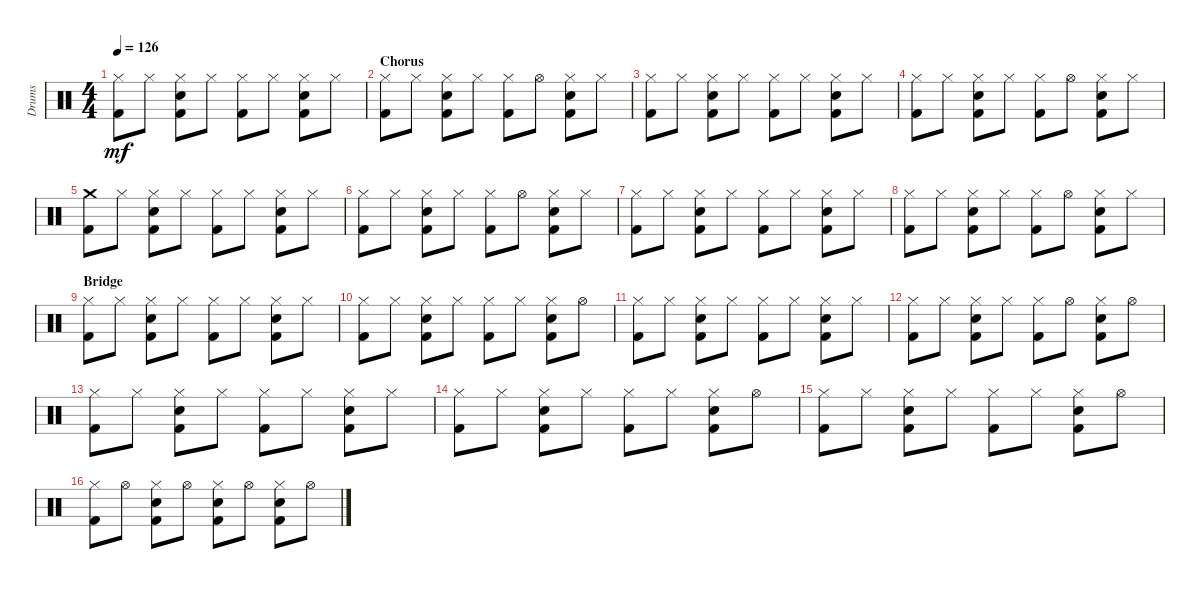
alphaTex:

\track ("Drums" "Drums") {instrument percussion}
\staff {score}
\articulation defaults
\ts (4 4)
\tempo 126
\clef neutral
\ks c
("Hi-Hat (closed)" "Kick (hit) 2").8{dy mf} "Hi-Hat (closed)".8 ("Hi-Hat (closed)" "Snare (hit) 2" "Kick (hit) 2").8 "Hi-Hat (closed)".8 ("Hi-Hat (closed)" "Kick (hit) 2").8 "Hi-Hat (closed)".8 ("Hi-Hat (closed)" "Snare (hit) 2" "Kick (hit) 2").8 "Hi-Hat (closed)".8 |
\section ("" "Chorus")
("Hi-Hat (closed)" "Kick (hit) 2").8 "Hi-Hat (closed)".8 ("Hi-Hat (closed)" "Snare (hit) 2" "Kick (hit) 2").8 "Hi-Hat (closed)".8 ("Hi-Hat (closed)" "Kick (hit) 2").8 "Hi-Hat (open)".8 ("Hi-Hat (closed)" "Snare (hit) 2" "Kick (hit) 2").8 "Hi-Hat (closed)".8 |
("Hi-Hat (closed)" "Kick (hit) 2").8 "Hi-Hat (closed)".8 ("Hi-Hat (closed)" "Snare (hit) 2" "Kick (hit) 2").8 "Hi-Hat (closed)".8 ("Hi-Hat (closed)" "Kick (hit) 2").8 "Hi-Hat (closed)".8 ("Hi-Hat (closed)" "Snare (hit) 2" "Kick (hit) 2").8 "Hi-Hat (closed)".8 |
("Hi-Hat (closed)" "Kick (hit) 2").8 "Hi-Hat (closed)".8 ("Hi-Hat (closed)" "Snare (hit) 2" "Kick (hit) 2").8 "Hi-Hat (closed)".8 ("Hi-Hat (closed)" "Kick (hit) 2").8 "Hi-Hat (open)".8 ("Hi-Hat (closed)" "Snare (hit) 2" "Kick (hit) 2").8 "Hi-Hat (closed)".8 |
("Crash medium (hit)" "Kick (hit) 2").8 "Hi-Hat (closed)".8 ("Hi-Hat (closed)" "Snare (hit) 2" "Kick (hit) 2").8 "Hi-Hat (closed)".8 ("Hi-Hat (closed)" "Kick (hit) 2").8 "Hi-Hat (closed)".8 ("Hi-Hat (closed)" "Snare (hit) 2" "Kick (hit) 2").8 "Hi-Hat (closed)".8 |
("Hi-Hat (closed)" "Kick (hit) 2").8 "Hi-Hat (closed)".8 ("Hi-Hat (closed)" "Snare (hit) 2" "Kick (hit) 2").8 "Hi-Hat (closed)".8 ("Hi-Hat (closed)" "Kick (hit) 2").8 "Hi-Hat (open)".8 ("Hi-Hat (closed)" "Snare (hit) 2" "Kick (hit) 2").8 "Hi-Hat (closed)".8 |
("Hi-Hat (closed)" "Kick (hit) 2").8 "Hi-Hat (closed)".8 ("Hi-Hat (closed)" "Snare (hit) 2" "Kick (hit) 2").8 "Hi-Hat (closed)".8 ("Hi-Hat (closed)" "Kick (hit) 2").8 "Hi-Hat (closed)".8 ("Hi-Hat (closed)" "Snare (hit) 2" "Kick (hit) 2").8 "Hi-Hat (closed)".8 |
("Hi-Hat (closed)" "Kick (hit) 2").8 "Hi-Hat (closed)".8 ("Hi-Hat (closed)" "Snare (hit) 2" "Kick (hit) 2").8 "Hi-Hat (closed)".8 ("Hi-Hat (closed)" "Kick (hit) 2").8 "Hi-Hat (open)".8 ("Hi-Hat (closed)" "Snare (hit) 2" "Kick (hit) 2").8 "Hi-Hat (closed)".8 |
\section ("" "Bridge")
("Hi-Hat (closed)" "Kick (hit) 2").8 "Hi-Hat (closed)".8 ("Hi-Hat (closed)" "Snare (hit) 2" "Kick (hit) 2").8 "Hi-Hat (closed)".8 ("Hi-Hat (closed)" "Kick (hit) 2").8 "Hi-Hat (closed)".8 ("Hi-Hat (closed)" "Snare (hit) 2" "Kick (hit) 2").8 "Hi-Hat (closed)".8 |
("Hi-Hat (closed)" "Kick (hit) 2").8 "Hi-Hat (closed)".8 ("Hi-Hat (closed)" "Snare (hit) 2" "Kick (hit) 2").8 "Hi-Hat (closed)".8 ("Hi-Hat (closed)" "Kick (hit) 2").8 "Hi-Hat (closed)".8 ("Hi-Hat (closed)" "Snare (hit) 2" "Kick (hit) 2").8 "Hi-Hat (open)".8 |
("Hi-Hat (closed)" "Kick (hit) 2").8 "Hi-Hat (closed)".8 ("Hi-Hat (closed)" "Snare (hit) 2" "Kick (hit) 2").8 "Hi-Hat (closed)".8 ("Hi-Hat (closed)" "Kick (hit) 2").8 "Hi-Hat (closed)".8 ("Hi-Hat (closed)" "Snare (hit) 2" "Kick (hit) 2").8 "Hi-Hat (closed)".8 |
("Hi-Hat (closed)" "Kick (hit) 2").8 "Hi-Hat (closed)".8 ("Hi-Hat (closed)" "Snare (hit) 2" "Kick (hit) 2").8 "Hi-Hat (closed)".8 ("Hi-Hat (closed)" "Kick (hit) 2").8 "Hi-Hat (open)".8 ("Hi-Hat (closed)" "Snare (hit) 2" "Kick (hit) 2").8 "Hi-Hat (open)".8 |
("Hi-Hat (closed)" "Kick (hit) 2").8 "Hi-Hat (closed)".8 ("Hi-Hat (closed)" "Snare (hit) 2" "Kick (hit) 2").8 "Hi-Hat (closed)".8 ("Hi-Hat (closed)" "Kick (hit) 2").8 "Hi-Hat (closed)".8 ("Hi-Hat (closed)" "Snare (hit) 2" "Kick (hit) 2").8 "Hi-Hat (closed)".8 |
("Hi-Hat (closed)" "Kick (hit) 2").8 "Hi-Hat (closed)".8 ("Hi-Hat (closed)" "Snare (hit) 2" "Kick (hit) 2").8 "Hi-Hat (closed)".8 ("Hi-Hat (closed)" "Kick (hit) 2").8 "Hi-Hat (closed)".8 ("Hi-Hat (closed)" "Snare (hit) 2" "Kick (hit) 2").8 "Hi-Hat (open)".8 |
("Hi-Hat (closed)" "Kick (hit) 2").8 "Hi-Hat (closed)".8 ("Hi-Hat (closed)" "Snare (hit) 2" "Kick (hit) 2").8 "Hi-Hat (closed)".8 ("Hi-Hat (closed)" "Kick (hit) 2").8 "Hi-Hat (closed)".8 ("Hi-Hat (closed)" "Snare (hit) 2" "Kick (hit) 2").8 "Hi-Hat (open)".8 |
("Hi-Hat (closed)" "Kick (hit) 2").8 "Hi-Hat (open)".8 ("Hi-Hat (closed)" "Snare (hit) 2" "Kick (hit) 2").8 "Hi-Hat (open)".8 ("Hi-Hat (closed)" "Snare (hit) 2" "Kick (hit) 2").8 "Hi-Hat (open)".8 ("Hi-Hat (closed)" "Snare (hit) 2" "Kick (hit) 2").8 "Hi-Hat (open)".8
